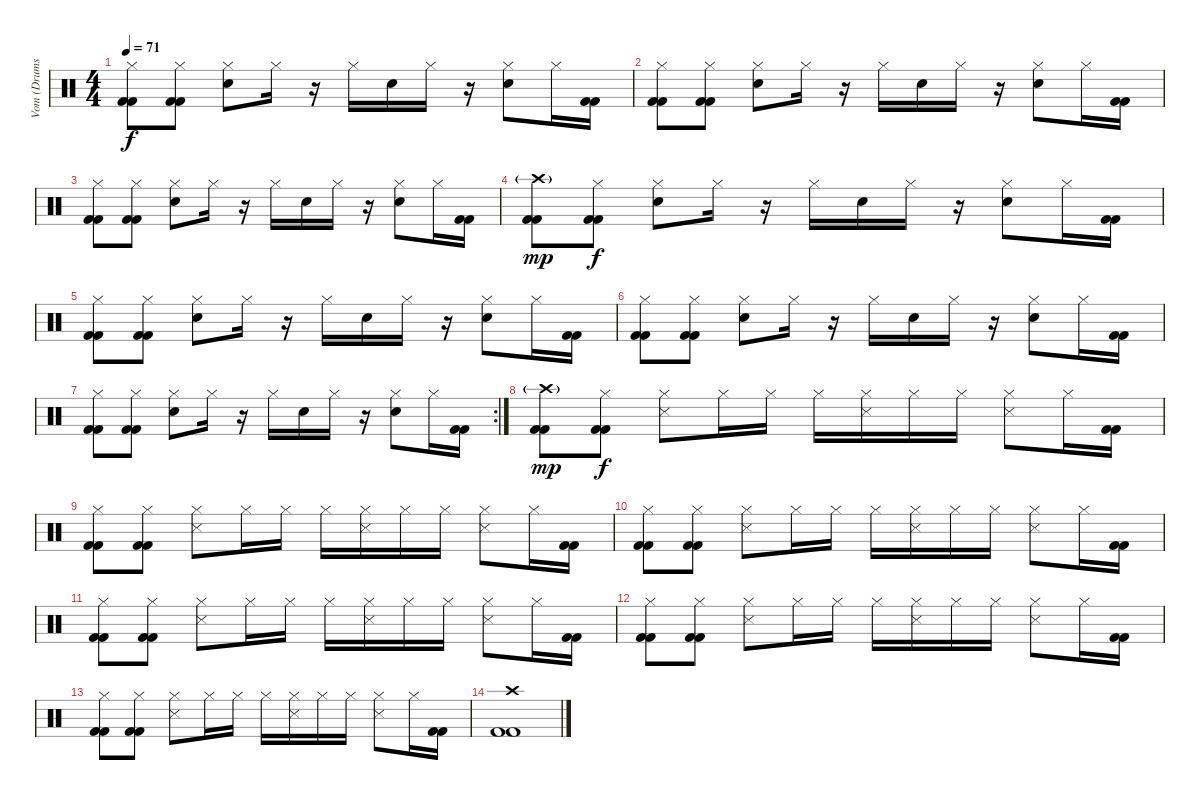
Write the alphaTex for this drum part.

\track ("Vom (Drums)" "Vom (Drums") {instrument percussion}
\staff {score}
\articulation defaults
\ts (4 4)
\tempo 71
\clef neutral
\ks c
("Hi-Hat (closed)" "Kick (hit) 2" "Kick (hit) 2").8{dy f} ("Hi-Hat (closed)" "Kick (hit) 2" "Kick (hit) 2").8 ("Hi-Hat (closed)" "Electric Snare (hit)").8 "Hi-Hat (closed)".16 r.16 "Hi-Hat (closed)".16 "Electric Snare (hit)".16 "Hi-Hat (closed)".16 r.16 ("Hi-Hat (closed)" "Electric Snare (hit)").8 "Hi-Hat (closed)".16 ("Kick (hit) 2" "Kick (hit) 2").16 |
("Hi-Hat (closed)" "Kick (hit) 2" "Kick (hit) 2").8 ("Hi-Hat (closed)" "Kick (hit) 2" "Kick (hit) 2").8 ("Hi-Hat (closed)" "Electric Snare (hit)").8 "Hi-Hat (closed)".16 r.16 "Hi-Hat (closed)".16 "Electric Snare (hit)".16 "Hi-Hat (closed)".16 r.16 ("Hi-Hat (closed)" "Electric Snare (hit)").8 "Hi-Hat (closed)".16 ("Kick (hit) 2" "Kick (hit) 2").16 |
("Hi-Hat (closed)" "Kick (hit) 2" "Kick (hit) 2").8 ("Hi-Hat (closed)" "Kick (hit) 2" "Kick (hit) 2").8 ("Hi-Hat (closed)" "Electric Snare (hit)").8 "Hi-Hat (closed)".16 r.16 "Hi-Hat (closed)".16 "Electric Snare (hit)".16 "Hi-Hat (closed)".16 r.16 ("Hi-Hat (closed)" "Electric Snare (hit)").8 "Hi-Hat (closed)".16 ("Kick (hit) 2" "Kick (hit) 2").16 |
("Crash high (hit)"{g} "Kick (hit) 2" "Kick (hit) 2").8{dy mp} ("Hi-Hat (closed)" "Kick (hit) 2" "Kick (hit) 2").8{dy f} ("Hi-Hat (closed)" "Electric Snare (hit)").8 "Hi-Hat (closed)".16 r.16 "Hi-Hat (closed)".16 "Electric Snare (hit)".16 "Hi-Hat (closed)".16 r.16 ("Hi-Hat (closed)" "Electric Snare (hit)").8 "Hi-Hat (closed)".16 ("Kick (hit) 2" "Kick (hit) 2").16 |
("Hi-Hat (closed)" "Kick (hit) 2" "Kick (hit) 2").8 ("Hi-Hat (closed)" "Kick (hit) 2" "Kick (hit) 2").8 ("Hi-Hat (closed)" "Electric Snare (hit)").8 "Hi-Hat (closed)".16 r.16 "Hi-Hat (closed)".16 "Electric Snare (hit)".16 "Hi-Hat (closed)".16 r.16 ("Hi-Hat (closed)" "Electric Snare (hit)").8 "Hi-Hat (closed)".16 ("Kick (hit) 2" "Kick (hit) 2").16 |
("Hi-Hat (closed)" "Kick (hit) 2" "Kick (hit) 2").8 ("Hi-Hat (closed)" "Kick (hit) 2" "Kick (hit) 2").8 ("Hi-Hat (closed)" "Electric Snare (hit)").8 "Hi-Hat (closed)".16 r.16 "Hi-Hat (closed)".16 "Electric Snare (hit)".16 "Hi-Hat (closed)".16 r.16 ("Hi-Hat (closed)" "Electric Snare (hit)").8 "Hi-Hat (closed)".16 ("Kick (hit) 2" "Kick (hit) 2").16 |
\rc 2
("Hi-Hat (closed)" "Kick (hit) 2" "Kick (hit) 2").8 ("Hi-Hat (closed)" "Kick (hit) 2" "Kick (hit) 2").8 ("Hi-Hat (closed)" "Electric Snare (hit)").8 "Hi-Hat (closed)".16 r.16 "Hi-Hat (closed)".16 "Electric Snare (hit)".16 "Hi-Hat (closed)".16 r.16 ("Hi-Hat (closed)" "Electric Snare (hit)").8 "Hi-Hat (closed)".16 ("Kick (hit) 2" "Kick (hit) 2").16 |
("Crash high (hit)"{g} "Kick (hit) 2" "Kick (hit) 2").8{dy mp} ("Hi-Hat (closed)" "Kick (hit) 2" "Kick (hit) 2").8{dy f} ("Hi-Hat (closed)" "Snare (side stick) 3").8 "Hi-Hat (closed)".16 "Hi-Hat (closed)".16 "Hi-Hat (closed)".16 ("Hi-Hat (closed)" "Snare (side stick) 3").16 "Hi-Hat (closed)".16 "Hi-Hat (closed)".16 ("Hi-Hat (closed)" "Snare (side stick) 3").8 "Hi-Hat (closed)".16 ("Kick (hit) 2" "Kick (hit) 2").16 |
("Hi-Hat (closed)" "Kick (hit) 2" "Kick (hit) 2").8 ("Hi-Hat (closed)" "Kick (hit) 2" "Kick (hit) 2").8 ("Hi-Hat (closed)" "Snare (side stick) 3").8 "Hi-Hat (closed)".16 "Hi-Hat (closed)".16 "Hi-Hat (closed)".16 ("Hi-Hat (closed)" "Snare (side stick) 3").16 "Hi-Hat (closed)".16 "Hi-Hat (closed)".16 ("Hi-Hat (closed)" "Snare (side stick) 3").8 "Hi-Hat (closed)".16 ("Kick (hit) 2" "Kick (hit) 2").16 |
("Hi-Hat (closed)" "Kick (hit) 2" "Kick (hit) 2").8 ("Hi-Hat (closed)" "Kick (hit) 2" "Kick (hit) 2").8 ("Hi-Hat (closed)" "Snare (side stick) 3").8 "Hi-Hat (closed)".16 "Hi-Hat (closed)".16 "Hi-Hat (closed)".16 ("Hi-Hat (closed)" "Snare (side stick) 3").16 "Hi-Hat (closed)".16 "Hi-Hat (closed)".16 ("Hi-Hat (closed)" "Snare (side stick) 3").8 "Hi-Hat (closed)".16 ("Kick (hit) 2" "Kick (hit) 2").16 |
("Hi-Hat (closed)" "Kick (hit) 2" "Kick (hit) 2").8 ("Hi-Hat (closed)" "Kick (hit) 2" "Kick (hit) 2").8 ("Hi-Hat (closed)" "Snare (side stick) 3").8 "Hi-Hat (closed)".16 "Hi-Hat (closed)".16 "Hi-Hat (closed)".16 ("Hi-Hat (closed)" "Snare (side stick) 3").16 "Hi-Hat (closed)".16 "Hi-Hat (closed)".16 ("Hi-Hat (closed)" "Snare (side stick) 3").8 "Hi-Hat (closed)".16 ("Kick (hit) 2" "Kick (hit) 2").16 |
("Hi-Hat (closed)" "Kick (hit) 2" "Kick (hit) 2").8 ("Hi-Hat (closed)" "Kick (hit) 2" "Kick (hit) 2").8 ("Hi-Hat (closed)" "Snare (side stick) 3").8 "Hi-Hat (closed)".16 "Hi-Hat (closed)".16 "Hi-Hat (closed)".16 ("Hi-Hat (closed)" "Snare (side stick) 3").16 "Hi-Hat (closed)".16 "Hi-Hat (closed)".16 ("Hi-Hat (closed)" "Snare (side stick) 3").8 "Hi-Hat (closed)".16 ("Kick (hit) 2" "Kick (hit) 2").16 |
("Hi-Hat (closed)" "Kick (hit) 2" "Kick (hit) 2").8 ("Hi-Hat (closed)" "Kick (hit) 2" "Kick (hit) 2").8 ("Hi-Hat (closed)" "Snare (side stick) 3").8 "Hi-Hat (closed)".16 "Hi-Hat (closed)".16 "Hi-Hat (closed)".16 ("Hi-Hat (closed)" "Snare (side stick) 3").16 "Hi-Hat (closed)".16 "Hi-Hat (closed)".16 ("Hi-Hat (closed)" "Snare (side stick) 3").8 "Hi-Hat (closed)".16 ("Kick (hit) 2" "Kick (hit) 2").16 |
("Crash high (hit)" "Kick (hit) 2" "Kick (hit) 2").1
